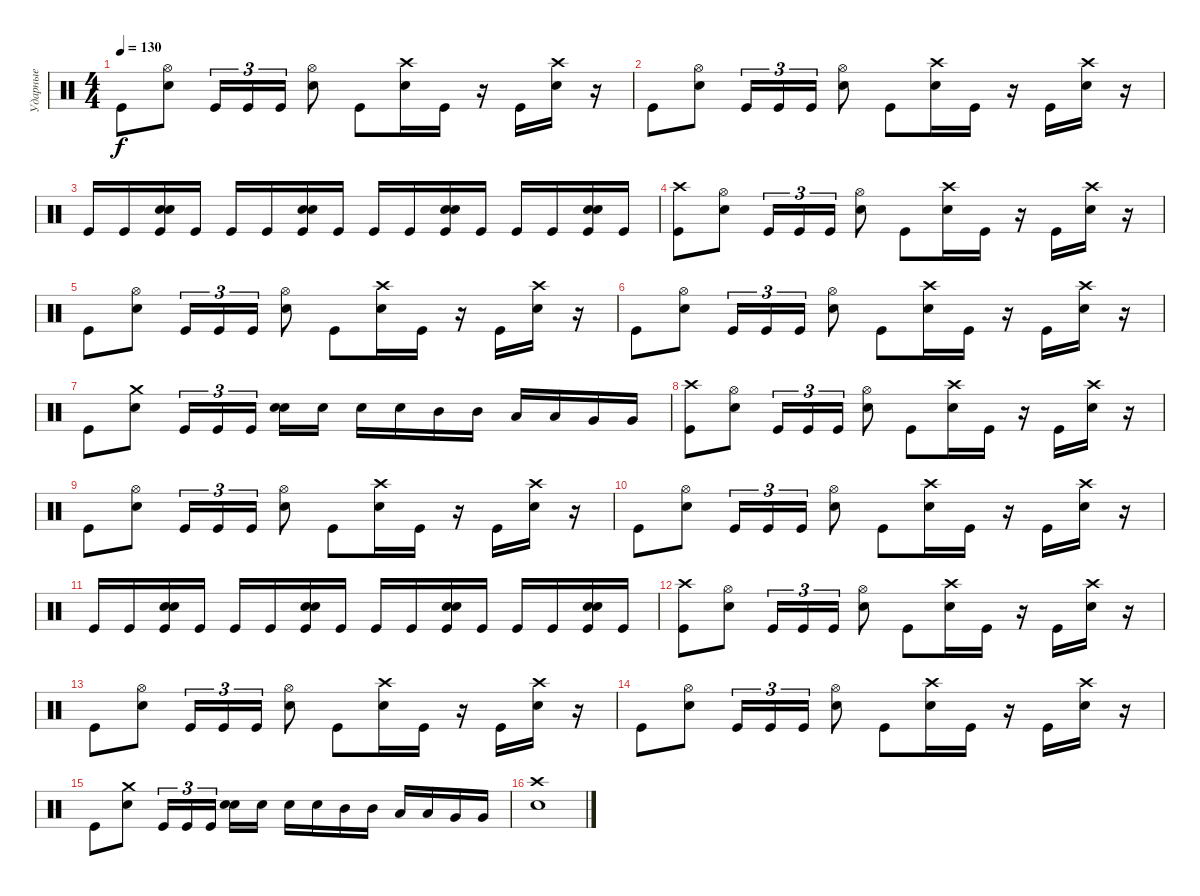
\track ("Ударные" "Ударные") {instrument percussion}
\staff {score}
\articulation defaults
\ts (4 4)
\tempo 130
\clef neutral
\ks c "Kick (hit)".8{dy f}
("Snare (hit) 2" "Hi-Hat (open)").8 "Kick (hit)".16{tu (3 2)} "Kick (hit)".16{tu (3 2)} "Kick (hit)".16{tu (3 2)} ("Snare (hit) 2" "Hi-Hat (open)").8 "Kick (hit)".8 ("Snare (hit) 2" "Crash high (hit)").16 "Kick (hit)".16 r.16 "Kick (hit)".16 ("Snare (hit) 2" "Crash high (hit)").16 r.16 |
"Kick (hit)".8 ("Snare (hit) 2" "Hi-Hat (open)").8 "Kick (hit)".16{tu (3 2)} "Kick (hit)".16{tu (3 2)} "Kick (hit)".16{tu (3 2)} ("Snare (hit) 2" "Hi-Hat (open)").8 "Kick (hit)".8 ("Snare (hit) 2" "Crash high (hit)").16 "Kick (hit)".16 r.16 "Kick (hit)".16 ("Snare (hit) 2" "Crash high (hit)").16 r.16 |
"Kick (hit)".16 "Kick (hit)".16 ("Kick (hit)" "Snare (hit) 2" "Snare (hit) 2").16{bd 60} "Kick (hit)".16 "Kick (hit)".16 "Kick (hit)".16 ("Kick (hit)" "Snare (hit) 2" "Snare (hit) 2").16{bd 60} "Kick (hit)".16 "Kick (hit)".16 "Kick (hit)".16 ("Kick (hit)" "Snare (hit) 2" "Snare (hit) 2").16{bd 60} "Kick (hit)".16 "Kick (hit)".16 "Kick (hit)".16 ("Kick (hit)" "Snare (hit) 2" "Snare (hit) 2").16{bd 60} "Kick (hit)".16 |
("Kick (hit)" "Crash high (hit)").8 ("Snare (hit) 2" "Hi-Hat (open)").8 "Kick (hit)".16{tu (3 2)} "Kick (hit)".16{tu (3 2)} "Kick (hit)".16{tu (3 2)} ("Snare (hit) 2" "Hi-Hat (open)").8 "Kick (hit)".8 ("Snare (hit) 2" "Crash high (hit)").16 "Kick (hit)".16 r.16 "Kick (hit)".16 ("Snare (hit) 2" "Crash high (hit)").16 r.16 |
"Kick (hit)".8 ("Snare (hit) 2" "Hi-Hat (open)").8 "Kick (hit)".16{tu (3 2)} "Kick (hit)".16{tu (3 2)} "Kick (hit)".16{tu (3 2)} ("Snare (hit) 2" "Hi-Hat (open)").8 "Kick (hit)".8 ("Snare (hit) 2" "Crash high (hit)").16 "Kick (hit)".16 r.16 "Kick (hit)".16 ("Snare (hit) 2" "Crash high (hit)").16 r.16 |
"Kick (hit)".8 ("Snare (hit) 2" "Hi-Hat (open)").8 "Kick (hit)".16{tu (3 2)} "Kick (hit)".16{tu (3 2)} "Kick (hit)".16{tu (3 2)} ("Snare (hit) 2" "Hi-Hat (open)").8 "Kick (hit)".8 ("Snare (hit) 2" "Crash high (hit)").16 "Kick (hit)".16 r.16 "Kick (hit)".16 ("Snare (hit) 2" "Crash high (hit)").16 r.16 |
"Kick (hit)".8 ("Snare (hit) 2" "Crash medium (hit)").8 "Kick (hit)".16{tu (3 2)} "Kick (hit)".16{tu (3 2)} "Kick (hit)".16{tu (3 2) beam splitsecondary} ("Snare (hit) 2" "Snare (hit) 2").16{bd 60} "Snare (hit) 2".16 "Snare (hit) 2".16 "Snare (hit) 2".16 "Mid Tom (hit)".16 "Mid Tom (hit)".16 "Low Tom (hit)".16 "Low Tom (hit)".16 "Very Low Tom (hit)".16 "Very Low Tom (hit)".16 |
("Kick (hit)" "Crash high (hit)").8 ("Snare (hit) 2" "Hi-Hat (open)").8 "Kick (hit)".16{tu (3 2)} "Kick (hit)".16{tu (3 2)} "Kick (hit)".16{tu (3 2)} ("Snare (hit) 2" "Hi-Hat (open)").8 "Kick (hit)".8 ("Snare (hit) 2" "Crash high (hit)").16 "Kick (hit)".16 r.16 "Kick (hit)".16 ("Snare (hit) 2" "Crash high (hit)").16 r.16 |
"Kick (hit)".8 ("Snare (hit) 2" "Hi-Hat (open)").8 "Kick (hit)".16{tu (3 2)} "Kick (hit)".16{tu (3 2)} "Kick (hit)".16{tu (3 2)} ("Snare (hit) 2" "Hi-Hat (open)").8 "Kick (hit)".8 ("Snare (hit) 2" "Crash high (hit)").16 "Kick (hit)".16 r.16 "Kick (hit)".16 ("Snare (hit) 2" "Crash high (hit)").16 r.16 |
"Kick (hit)".8 ("Snare (hit) 2" "Hi-Hat (open)").8 "Kick (hit)".16{tu (3 2)} "Kick (hit)".16{tu (3 2)} "Kick (hit)".16{tu (3 2)} ("Snare (hit) 2" "Hi-Hat (open)").8 "Kick (hit)".8 ("Snare (hit) 2" "Crash high (hit)").16 "Kick (hit)".16 r.16 "Kick (hit)".16 ("Snare (hit) 2" "Crash high (hit)").16 r.16 |
"Kick (hit)".16 "Kick (hit)".16 ("Kick (hit)" "Snare (hit) 2" "Snare (hit) 2").16{bd 60} "Kick (hit)".16 "Kick (hit)".16 "Kick (hit)".16 ("Kick (hit)" "Snare (hit) 2" "Snare (hit) 2").16{bd 60} "Kick (hit)".16 "Kick (hit)".16 "Kick (hit)".16 ("Kick (hit)" "Snare (hit) 2" "Snare (hit) 2").16{bd 60} "Kick (hit)".16 "Kick (hit)".16 "Kick (hit)".16 ("Kick (hit)" "Snare (hit) 2" "Snare (hit) 2").16{bd 60} "Kick (hit)".16 |
("Kick (hit)" "Crash high (hit)").8 ("Snare (hit) 2" "Hi-Hat (open)").8 "Kick (hit)".16{tu (3 2)} "Kick (hit)".16{tu (3 2)} "Kick (hit)".16{tu (3 2)} ("Snare (hit) 2" "Hi-Hat (open)").8 "Kick (hit)".8 ("Snare (hit) 2" "Crash high (hit)").16 "Kick (hit)".16 r.16 "Kick (hit)".16 ("Snare (hit) 2" "Crash high (hit)").16 r.16 |
"Kick (hit)".8 ("Snare (hit) 2" "Hi-Hat (open)").8 "Kick (hit)".16{tu (3 2)} "Kick (hit)".16{tu (3 2)} "Kick (hit)".16{tu (3 2)} ("Snare (hit) 2" "Hi-Hat (open)").8 "Kick (hit)".8 ("Snare (hit) 2" "Crash high (hit)").16 "Kick (hit)".16 r.16 "Kick (hit)".16 ("Snare (hit) 2" "Crash high (hit)").16 r.16 |
"Kick (hit)".8 ("Snare (hit) 2" "Hi-Hat (open)").8 "Kick (hit)".16{tu (3 2)} "Kick (hit)".16{tu (3 2)} "Kick (hit)".16{tu (3 2)} ("Snare (hit) 2" "Hi-Hat (open)").8 "Kick (hit)".8 ("Snare (hit) 2" "Crash high (hit)").16 "Kick (hit)".16 r.16 "Kick (hit)".16 ("Snare (hit) 2" "Crash high (hit)").16 r.16 |
"Kick (hit)".8 ("Snare (hit) 2" "Crash medium (hit)").8 "Kick (hit)".16{tu (3 2)} "Kick (hit)".16{tu (3 2)} "Kick (hit)".16{tu (3 2) beam splitsecondary} ("Snare (hit) 2" "Snare (hit) 2").16{bd 60} "Snare (hit) 2".16 "Snare (hit) 2".16 "Snare (hit) 2".16 "Mid Tom (hit)".16 "Mid Tom (hit)".16 "Low Tom (hit)".16 "Low Tom (hit)".16 "Very Low Tom (hit)".16 "Very Low Tom (hit)".16 |
("Snare (hit) 2" "Crash high (hit)").1
